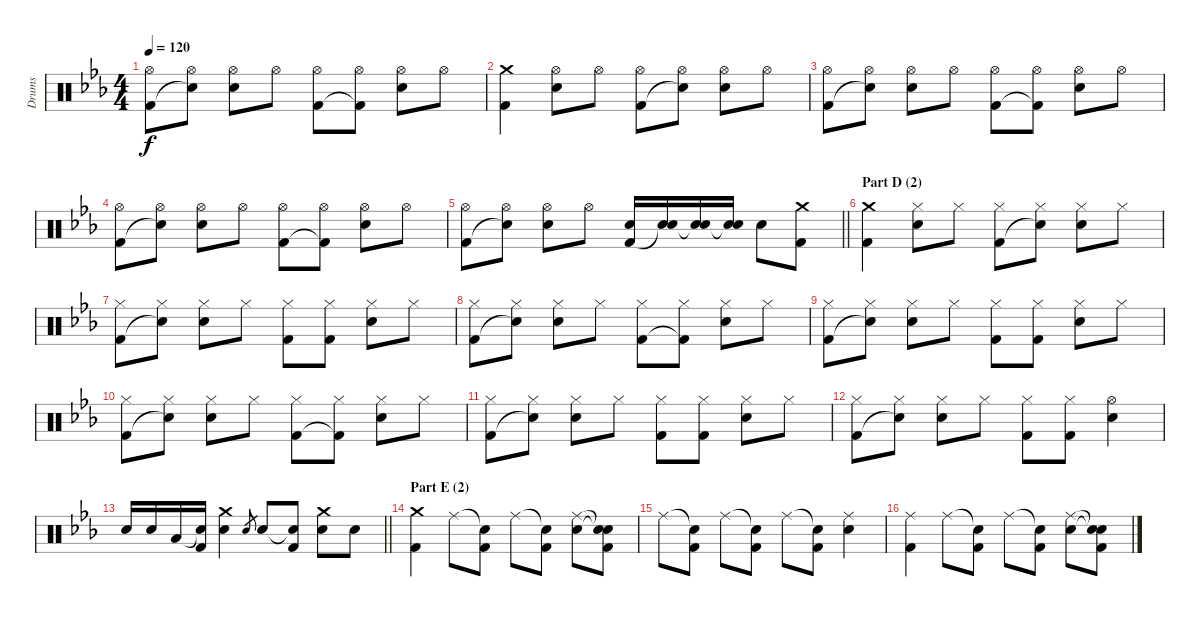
\track ("Drums" "Drums") {instrument percussion}
\staff {score}
\articulation defaults
\ts (4 4)
\tempo 120
\clef neutral
\ks eb
("Hi-Hat (open)" "Kick (hit) 2").8{dy f} ("Hi-Hat (open)" "Snare (hit)"{t}).8 ("Hi-Hat (open)" "Electric Snare (hit)").8 "Hi-Hat (open)".8 ("Hi-Hat (open)" "Kick (hit) 2").8 ("Hi-Hat (open)" "Kick (hit) 2"{t}).8 ("Hi-Hat (open)" "Electric Snare (hit)").8 "Hi-Hat (open)".8 |
("Crash medium (hit)" "Kick (hit) 2").4 ("Hi-Hat (open)" "Electric Snare (hit)").8 "Hi-Hat (open)".8 ("Hi-Hat (open)" "Kick (hit) 2").8 ("Hi-Hat (open)" "Snare (hit)"{t}).8 ("Hi-Hat (open)" "Electric Snare (hit)").8 "Hi-Hat (open)".8 |
("Hi-Hat (open)" "Kick (hit) 2").8 ("Hi-Hat (open)" "Snare (hit)"{t}).8 ("Hi-Hat (open)" "Electric Snare (hit)").8 "Hi-Hat (open)".8 ("Hi-Hat (open)" "Kick (hit) 2").8 ("Hi-Hat (open)" "Kick (hit) 2"{t}).8 ("Hi-Hat (open)" "Electric Snare (hit)").8 "Hi-Hat (open)".8 |
("Hi-Hat (open)" "Kick (hit) 2").8 ("Hi-Hat (open)" "Snare (hit)"{t}).8 ("Hi-Hat (open)" "Electric Snare (hit)").8 "Hi-Hat (open)".8 ("Hi-Hat (open)" "Kick (hit) 2").8 ("Hi-Hat (open)" "Kick (hit) 2"{t}).8 ("Hi-Hat (open)" "Electric Snare (hit)").8 "Hi-Hat (open)".8 |
\barLineRight lightlight
("Hi-Hat (open)" "Kick (hit) 2").8 ("Hi-Hat (open)" "Snare (hit)"{t}).8 ("Hi-Hat (open)" "Electric Snare (hit)").8 "Hi-Hat (open)".8 ("Electric Snare (hit)" "Kick (hit) 2").16 ("Electric Snare (hit)" "Snare (hit)"{t}).16 ("Electric Snare (hit)" "Snare (hit)"{t}).16 ("Electric Snare (hit)" "Snare (hit)"{t}).16 "Electric Snare (hit)".8 ("Crash medium (hit)" "Kick (hit) 2").8 |
\section ("" "Part D (2)")
("Crash medium (hit)" "Kick (hit) 2").4 ("Hi-Hat (closed)" "Electric Snare (hit)").8 "Hi-Hat (closed)".8 ("Hi-Hat (closed)" "Kick (hit) 2").8 ("Hi-Hat (closed)" "Snare (hit)"{t}).8 ("Hi-Hat (closed)" "Electric Snare (hit)").8 "Hi-Hat (closed)".8 |
("Hi-Hat (closed)" "Kick (hit) 2").8 ("Hi-Hat (closed)" "Snare (hit)"{t}).8 ("Hi-Hat (closed)" "Electric Snare (hit)").8 "Hi-Hat (closed)".8 ("Hi-Hat (closed)" "Kick (hit) 2").8 ("Hi-Hat (closed)" "Kick (hit) 2").8 ("Hi-Hat (closed)" "Electric Snare (hit)").8 "Hi-Hat (closed)".8 |
("Hi-Hat (closed)" "Kick (hit) 2").8 ("Hi-Hat (closed)" "Snare (hit)"{t}).8 ("Hi-Hat (closed)" "Electric Snare (hit)").8 "Hi-Hat (closed)".8 ("Hi-Hat (closed)" "Kick (hit) 2").8 ("Hi-Hat (closed)" "Kick (hit) 2"{t}).8 ("Hi-Hat (closed)" "Electric Snare (hit)").8 "Hi-Hat (closed)".8 |
("Hi-Hat (closed)" "Kick (hit) 2").8 ("Hi-Hat (closed)" "Snare (hit)"{t}).8 ("Hi-Hat (closed)" "Electric Snare (hit)").8 "Hi-Hat (closed)".8 ("Hi-Hat (closed)" "Kick (hit) 2").8 ("Hi-Hat (closed)" "Kick (hit) 2").8 ("Hi-Hat (closed)" "Electric Snare (hit)").8 "Hi-Hat (closed)".8 |
("Hi-Hat (closed)" "Kick (hit) 2").8 ("Hi-Hat (closed)" "Snare (hit)"{t}).8 ("Hi-Hat (closed)" "Electric Snare (hit)").8 "Hi-Hat (closed)".8 ("Hi-Hat (closed)" "Kick (hit) 2").8 ("Hi-Hat (closed)" "Kick (hit) 2"{t}).8 ("Hi-Hat (closed)" "Electric Snare (hit)").8 "Hi-Hat (closed)".8 |
("Hi-Hat (closed)" "Kick (hit) 2").8 ("Hi-Hat (closed)" "Snare (hit)"{t}).8 ("Hi-Hat (closed)" "Electric Snare (hit)").8 "Hi-Hat (closed)".8 ("Hi-Hat (closed)" "Kick (hit) 2").8 ("Hi-Hat (closed)" "Kick (hit) 2").8 ("Hi-Hat (closed)" "Electric Snare (hit)").8 "Hi-Hat (closed)".8 |
("Hi-Hat (closed)" "Kick (hit) 2").8 ("Hi-Hat (closed)" "Snare (hit)"{t}).8 ("Hi-Hat (closed)" "Electric Snare (hit)").8 "Hi-Hat (closed)".8 ("Hi-Hat (closed)" "Kick (hit) 2").8 ("Hi-Hat (closed)" "Kick (hit) 2").8 ("Hi-Hat (open)" "Electric Snare (hit)").4 |
\barLineRight lightlight "Electric Snare (hit)".16 "Electric Snare (hit)".16 "Low Tom (hit)".16
("Snare (hit)"{t} "Kick (hit) 2").16 ("Crash medium (hit)" "Electric Snare (hit)").4 "Electric Snare (hit)".8{gr} "Electric Snare (hit)".8 ("Snare (hit)"{t} "Kick (hit) 2").8 ("Crash medium (hit)" "Electric Snare (hit)").8 "Electric Snare (hit)".8 |
\section ("" "Part E (2)")
("Crash medium (hit)" "Kick (hit) 2").4 "Ride (middle)".8 ("Snare (hit)"{t} "Kick (hit) 2").8 "Ride (middle)".8 ("Snare (hit)"{t} "Kick (hit) 2").8 ("Ride (middle)" "Electric Snare (hit)").8 ("Snare (hit)"{t} "Snare (hit)"{t} "Kick (hit) 2").8 |
"Ride (middle)".8 ("Snare (hit)"{t} "Kick (hit) 2").8 "Ride (middle)".8 ("Snare (hit)"{t} "Kick (hit) 2").8 "Ride (middle)".8 ("Snare (hit)"{t} "Kick (hit) 2").8 ("Ride (middle)" "Electric Snare (hit)").4 |
("Ride (middle)" "Kick (hit) 2").4 "Ride (middle)".8 ("Snare (hit)"{t} "Kick (hit) 2").8 "Ride (middle)".8 ("Snare (hit)"{t} "Kick (hit) 2").8 ("Ride (middle)" "Electric Snare (hit)").8 ("Snare (hit)"{t} "Snare (hit)"{t} "Kick (hit) 2").8
